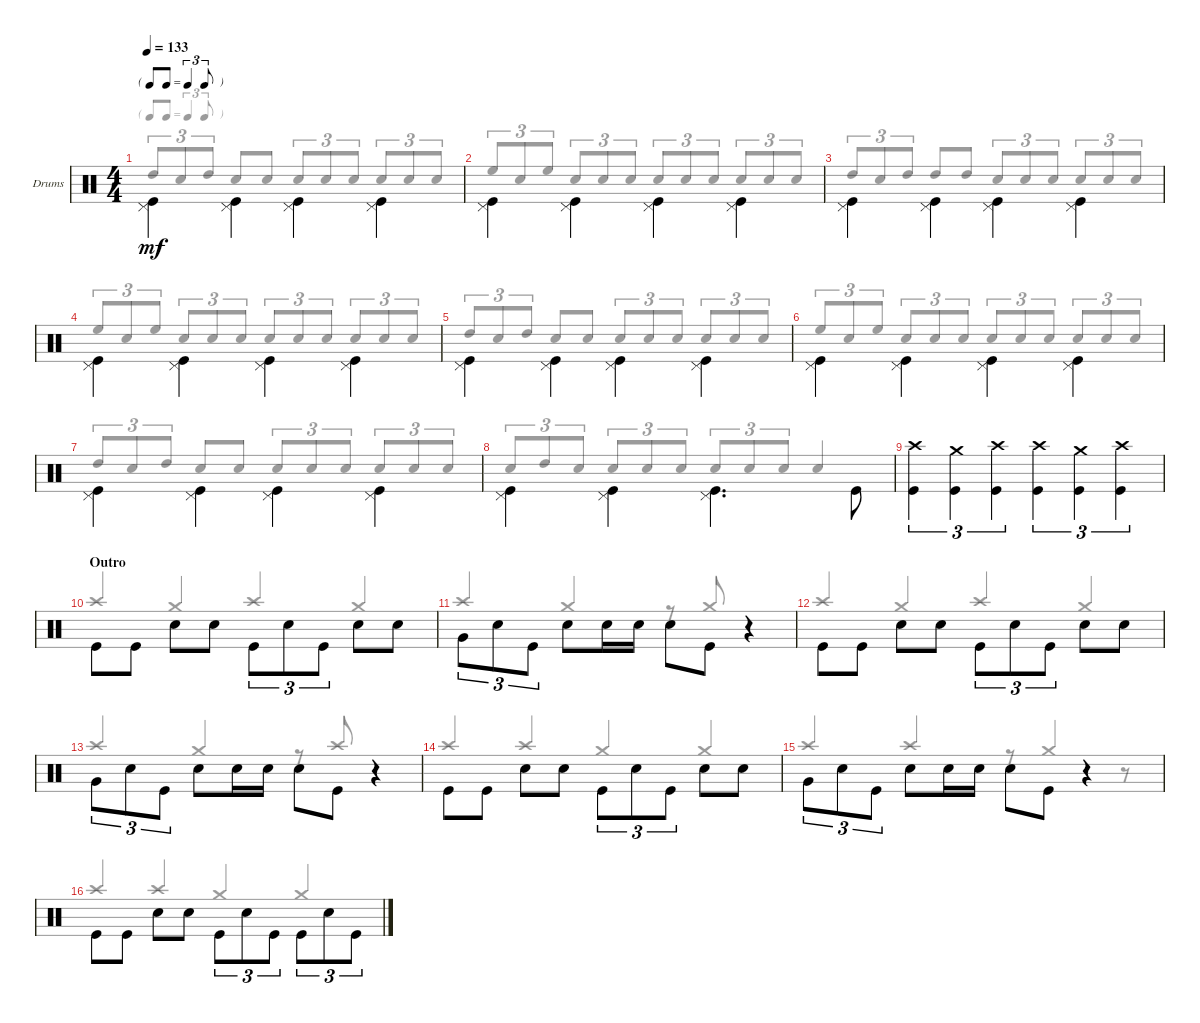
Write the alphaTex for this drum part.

\defaultSystemsLayout 4
\bracketExtendMode groupsimilarinstruments
\firstSystemTrackNameOrientation horizontal
\otherSystemsTrackNameOrientation horizontal
\track ("PETER CRISS" "Drums") {solo instrument percussion}
\staff {score}
\articulation defaults
\voice
\ts (4 4)
\tf triplet8th
\tempo 133
\clef neutral
\ks c
("Pedal Hi-Hat (hit)" "Kick (hit)").4{dy mf beam invert} ("Pedal Hi-Hat (hit)" "Kick (hit)").4{beam invert} ("Pedal Hi-Hat (hit)" "Kick (hit)").4{beam invert} ("Pedal Hi-Hat (hit)" "Kick (hit)").4{beam invert} |
("Pedal Hi-Hat (hit)" "Kick (hit)").4{beam invert} ("Pedal Hi-Hat (hit)" "Kick (hit)").4{beam invert} ("Pedal Hi-Hat (hit)" "Kick (hit)").4{beam invert} ("Pedal Hi-Hat (hit)" "Kick (hit)").4{beam invert} |
("Pedal Hi-Hat (hit)" "Kick (hit)").4{beam invert} ("Pedal Hi-Hat (hit)" "Kick (hit)").4{beam invert} ("Pedal Hi-Hat (hit)" "Kick (hit)").4{beam invert} ("Pedal Hi-Hat (hit)" "Kick (hit)").4{beam invert} |
("Pedal Hi-Hat (hit)" "Kick (hit)").4{beam invert} ("Pedal Hi-Hat (hit)" "Kick (hit)").4{beam invert} ("Pedal Hi-Hat (hit)" "Kick (hit)").4{beam invert} ("Pedal Hi-Hat (hit)" "Kick (hit)").4{beam invert} |
("Pedal Hi-Hat (hit)" "Kick (hit)").4{beam invert} ("Pedal Hi-Hat (hit)" "Kick (hit)").4{beam invert} ("Pedal Hi-Hat (hit)" "Kick (hit)").4{beam invert} ("Pedal Hi-Hat (hit)" "Kick (hit)").4{beam invert} |
("Pedal Hi-Hat (hit)" "Kick (hit)").4{beam invert} ("Pedal Hi-Hat (hit)" "Kick (hit)").4{beam invert} ("Pedal Hi-Hat (hit)" "Kick (hit)").4{beam invert} ("Pedal Hi-Hat (hit)" "Kick (hit)").4{beam invert} |
("Pedal Hi-Hat (hit)" "Kick (hit)").4{beam invert} ("Pedal Hi-Hat (hit)" "Kick (hit)").4{beam invert} ("Pedal Hi-Hat (hit)" "Kick (hit)").4{beam invert} ("Pedal Hi-Hat (hit)" "Kick (hit)").4{beam invert} |
("Pedal Hi-Hat (hit)" "Kick (hit)").4{beam invert} ("Pedal Hi-Hat (hit)" "Kick (hit)").4{beam invert} ("Pedal Hi-Hat (hit)" "Kick (hit)").4{d beam invert} "Kick (hit)".8{beam invert} |
("Kick (hit)" "Crash high (hit)").4{tu (3 2)} ("Kick (hit)" "Crash medium (hit)").4{tu (3 2)} ("Kick (hit)" "Crash high (hit)").4{tu (3 2)} ("Kick (hit)" "Crash high (hit)").4{tu (3 2)} ("Kick (hit)" "Crash medium (hit)").4{tu (3 2)} ("Kick (hit)" "Crash high (hit)").4{tu (3 2)} |
\section ("" "Outro")
"Kick (hit)".8{beam invert} "Kick (hit)".8 "Snare (hit) 2".8{beam invert} "Snare (hit) 2".8 "Kick (hit)".8{tu (3 2) beam invert} "Snare (hit) 2".8{tu (3 2)} "Kick (hit)".8{tu (3 2)} "Snare (hit) 2".8{beam invert} "Snare (hit) 2".8 |
"Very Low Tom (hit)".8{tu (3 2) beam invert} "Snare (hit) 2".8{tu (3 2)} "Kick (hit)".8{tu (3 2)} "Snare (hit) 2".8{beam invert} "Snare (hit) 2".16 "Snare (hit) 2".16 "Snare (hit) 2".8{beam invert} "Kick (hit)".8 r.4 |
"Kick (hit)".8{beam invert} "Kick (hit)".8 "Snare (hit) 2".8{beam invert} "Snare (hit) 2".8 "Kick (hit)".8{tu (3 2) beam invert} "Snare (hit) 2".8{tu (3 2)} "Kick (hit)".8{tu (3 2)} "Snare (hit) 2".8{beam invert} "Snare (hit) 2".8 |
"Very Low Tom (hit)".8{tu (3 2) beam invert} "Snare (hit) 2".8{tu (3 2)} "Kick (hit)".8{tu (3 2)} "Snare (hit) 2".8{beam invert} "Snare (hit) 2".16 "Snare (hit) 2".16 "Snare (hit) 2".8{beam invert} "Kick (hit)".8 r.4 |
"Kick (hit)".8{beam invert} "Kick (hit)".8 "Snare (hit) 2".8{beam invert} "Snare (hit) 2".8 "Kick (hit)".8{tu (3 2) beam invert} "Snare (hit) 2".8{tu (3 2)} "Kick (hit)".8{tu (3 2)} "Snare (hit) 2".8{beam invert} "Snare (hit) 2".8 |
"Very Low Tom (hit)".8{tu (3 2) beam invert} "Snare (hit) 2".8{tu (3 2)} "Kick (hit)".8{tu (3 2)} "Snare (hit) 2".8{beam invert} "Snare (hit) 2".16 "Snare (hit) 2".16 "Snare (hit) 2".8{beam invert} "Kick (hit)".8 r.4 |
"Kick (hit)".8{beam invert} "Kick (hit)".8 "Snare (hit) 2".8{beam invert} "Snare (hit) 2".8 "Kick (hit)".8{tu (3 2) beam invert} "Snare (hit) 2".8{tu (3 2)} "Kick (hit)".8{tu (3 2)} "Kick (hit)".8{tu (3 2) beam invert} "Snare (hit) 2".8{tu (3 2)} "Kick (hit)".8{tu (3 2)}
\voice
\clef neutral
\ottava regular
\simile none
\ks c "High Tom (hit)".8{tu (3 2) dy mf beam invert} "Snare (hit) 2".8{tu (3 2)} "High Tom (hit)".8{tu (3 2)} "Snare (hit) 2".8{beam invert} "Snare (hit) 2".8 "Snare (hit) 2".8{tu (3 2)} "Snare (hit) 2".8{tu (3 2) beam invert} "Snare (hit) 2".8{tu (3 2)} "Snare (hit) 2".8{tu (3 2)} "Snare (hit) 2".8{tu (3 2) beam invert} "Snare (hit) 2".8{tu (3 2)}
|
"High Floor Tom (hit)".8{tu (3 2) beam invert} "Snare (hit) 2".8{tu (3 2)} "High Floor Tom (hit)".8{tu (3 2)} "Snare (hit) 2".8{tu (3 2) beam invert} "Snare (hit) 2".8{tu (3 2)} "Snare (hit) 2".8{tu (3 2)} "Snare (hit) 2".8{tu (3 2) beam invert} "Snare (hit) 2".8{tu (3 2)} "Snare (hit) 2".8{tu (3 2)} "Snare (hit) 2".8{tu (3 2) beam invert} "Snare (hit) 2".8{tu (3 2)} "Snare (hit) 2".8{tu (3 2)} |
"High Tom (hit)".8{tu (3 2) beam invert} "Snare (hit) 2".8{tu (3 2)} "High Tom (hit)".8{tu (3 2)} "High Tom (hit)".8{beam invert} "High Tom (hit)".8 "Snare (hit) 2".8{tu (3 2)} "Snare (hit) 2".8{tu (3 2) beam invert} "Snare (hit) 2".8{tu (3 2)} "Snare (hit) 2".8{tu (3 2)} "Snare (hit) 2".8{tu (3 2) beam invert} "Snare (hit) 2".8{tu (3 2)} |
"High Floor Tom (hit)".8{tu (3 2) beam invert} "Snare (hit) 2".8{tu (3 2)} "High Floor Tom (hit)".8{tu (3 2)} "Snare (hit) 2".8{tu (3 2) beam invert} "Snare (hit) 2".8{tu (3 2)} "Snare (hit) 2".8{tu (3 2)} "Snare (hit) 2".8{tu (3 2) beam invert} "Snare (hit) 2".8{tu (3 2)} "Snare (hit) 2".8{tu (3 2)} "Snare (hit) 2".8{tu (3 2) beam invert} "Snare (hit) 2".8{tu (3 2)} "Snare (hit) 2".8{tu (3 2)} |
"High Tom (hit)".8{tu (3 2) beam invert} "Snare (hit) 2".8{tu (3 2)} "High Tom (hit)".8{tu (3 2)} "Snare (hit) 2".8{beam invert} "Snare (hit) 2".8 "Snare (hit) 2".8{tu (3 2) beam invert} "Snare (hit) 2".8{tu (3 2)} "Snare (hit) 2".8{tu (3 2)} "Snare (hit) 2".8{tu (3 2) beam invert} "Snare (hit) 2".8{tu (3 2)} "Snare (hit) 2".8{tu (3 2)} |
"High Floor Tom (hit)".8{tu (3 2) beam invert} "Snare (hit) 2".8{tu (3 2)} "High Floor Tom (hit)".8{tu (3 2)} "Snare (hit) 2".8{tu (3 2) beam invert} "Snare (hit) 2".8{tu (3 2)} "Snare (hit) 2".8{tu (3 2)} "Snare (hit) 2".8{tu (3 2) beam invert} "Snare (hit) 2".8{tu (3 2)} "Snare (hit) 2".8{tu (3 2)} "Snare (hit) 2".8{tu (3 2) beam invert} "Snare (hit) 2".8{tu (3 2)} "Snare (hit) 2".8{tu (3 2)} |
"High Tom (hit)".8{tu (3 2) beam invert} "Snare (hit) 2".8{tu (3 2)} "High Tom (hit)".8{tu (3 2)} "Snare (hit) 2".8{beam invert} "Snare (hit) 2".8 "Snare (hit) 2".8{tu (3 2) beam invert} "Snare (hit) 2".8{tu (3 2)} "Snare (hit) 2".8{tu (3 2)} "Snare (hit) 2".8{tu (3 2) beam invert} "Snare (hit) 2".8{tu (3 2)} "Snare (hit) 2".8{tu (3 2)} |
"Snare (hit) 2".8{tu (3 2)} "High Tom (hit)".8{tu (3 2)} "Snare (hit) 2".8{tu (3 2) beam invert} "Snare (hit) 2".8{tu (3 2) beam invert} "Snare (hit) 2".8{tu (3 2)} "Snare (hit) 2".8{tu (3 2)} "Snare (hit) 2".8{tu (3 2) beam invert} "Snare (hit) 2".8{tu (3 2)} "Snare (hit) 2".8{tu (3 2)} "Snare (hit) 2".4{beam invert} |
|
"Crash high (hit)".4{beam invert} "Crash medium (hit)".4{beam invert} "Crash high (hit)".4{beam invert} "Crash medium (hit)".4{beam invert} |
"Crash high (hit)".4{beam invert} "Crash medium (hit)".4{beam invert} r.8{beam invert} "Crash medium (hit)".8{beam invert} r.4{beam invert} |
"Crash high (hit)".4{beam invert} "Crash medium (hit)".4{beam invert} "Crash high (hit)".4{beam invert} "Crash medium (hit)".4{beam invert} |
"Crash high (hit)".4{beam invert} "Crash medium (hit)".4{beam invert} r.8{beam invert} "Crash high (hit)".8{beam invert} r.4{beam invert} |
"Crash high (hit)".4{beam invert} "Crash high (hit)".4{beam invert} "Crash medium (hit)".4{beam invert} "Crash medium (hit)".4{beam invert} |
"Crash high (hit)".4{beam invert} "Crash high (hit)".4{beam invert} r.8{beam invert} "Crash medium (hit)".4{beam invert} r.8{beam invert} |
"Crash high (hit)".4{beam invert} "Crash high (hit)".4{beam invert} "Crash medium (hit)".4{beam invert} "Crash medium (hit)".4{beam invert}
